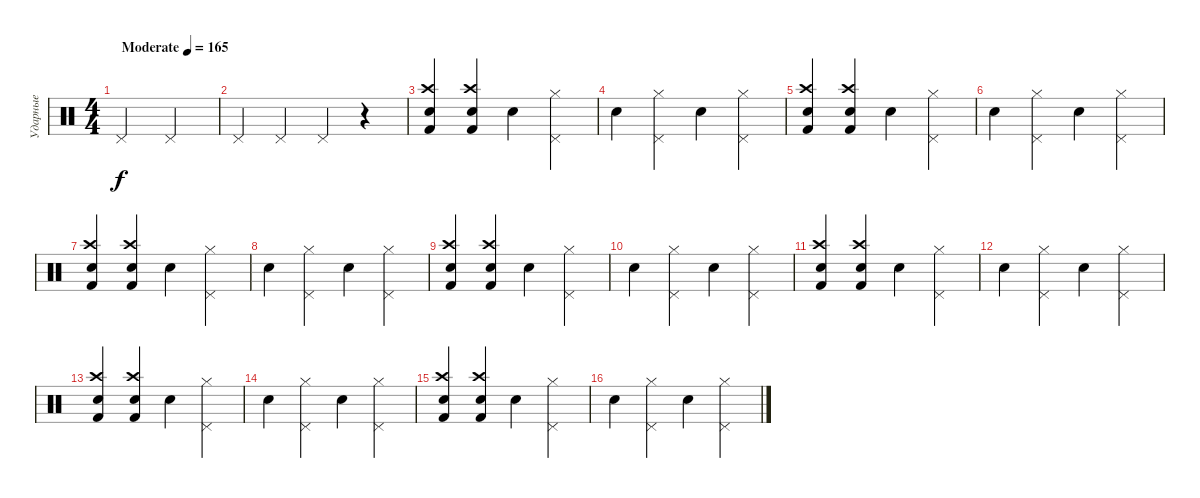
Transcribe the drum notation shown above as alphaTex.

\track ("Ударные" "Ударные") {instrument percussion}
\staff {score}
\articulation defaults
\ts (4 4)
\tempo (165 "Moderate")
\clef neutral
\ks c "Pedal Hi-Hat (hit)".2{dy f} "Pedal Hi-Hat (hit)".2
|
"Pedal Hi-Hat (hit)".4 "Pedal Hi-Hat (hit)".4 "Pedal Hi-Hat (hit)".4 r.4 |
("Kick (hit) 2" "Crash high (hit)" "Snare (hit) 2").4 ("Kick (hit) 2" "Crash high (hit)" "Snare (hit) 2").4 "Snare (hit) 2".4 ("Hi-Hat (closed)" "Pedal Hi-Hat (hit)").4 |
"Electric Snare (hit)".4 ("Hi-Hat (closed)" "Pedal Hi-Hat (hit)").4 "Electric Snare (hit)".4 ("Hi-Hat (closed)" "Pedal Hi-Hat (hit)").4 |
("Kick (hit) 2" "Crash high (hit)" "Snare (hit) 2").4 ("Kick (hit) 2" "Crash high (hit)" "Snare (hit) 2").4 "Snare (hit) 2".4 ("Hi-Hat (closed)" "Pedal Hi-Hat (hit)").4 |
"Electric Snare (hit)".4 ("Hi-Hat (closed)" "Pedal Hi-Hat (hit)").4 "Electric Snare (hit)".4 ("Hi-Hat (closed)" "Pedal Hi-Hat (hit)").4 |
("Kick (hit) 2" "Crash high (hit)" "Snare (hit) 2").4 ("Kick (hit) 2" "Crash high (hit)" "Snare (hit) 2").4 "Snare (hit) 2".4 ("Hi-Hat (closed)" "Pedal Hi-Hat (hit)").4 |
"Electric Snare (hit)".4 ("Hi-Hat (closed)" "Pedal Hi-Hat (hit)").4 "Electric Snare (hit)".4 ("Hi-Hat (closed)" "Pedal Hi-Hat (hit)").4 |
("Kick (hit) 2" "Crash high (hit)" "Snare (hit) 2").4 ("Kick (hit) 2" "Crash high (hit)" "Snare (hit) 2").4 "Snare (hit) 2".4 ("Hi-Hat (closed)" "Pedal Hi-Hat (hit)").4 |
"Electric Snare (hit)".4 ("Hi-Hat (closed)" "Pedal Hi-Hat (hit)").4 "Electric Snare (hit)".4 ("Hi-Hat (closed)" "Pedal Hi-Hat (hit)").4 |
("Kick (hit) 2" "Crash high (hit)" "Snare (hit) 2").4 ("Kick (hit) 2" "Crash high (hit)" "Snare (hit) 2").4 "Snare (hit) 2".4 ("Hi-Hat (closed)" "Pedal Hi-Hat (hit)").4 |
"Electric Snare (hit)".4 ("Hi-Hat (closed)" "Pedal Hi-Hat (hit)").4 "Electric Snare (hit)".4 ("Hi-Hat (closed)" "Pedal Hi-Hat (hit)").4 |
("Kick (hit) 2" "Crash high (hit)" "Snare (hit) 2").4 ("Kick (hit) 2" "Crash high (hit)" "Snare (hit) 2").4 "Snare (hit) 2".4 ("Hi-Hat (closed)" "Pedal Hi-Hat (hit)").4 |
"Electric Snare (hit)".4 ("Hi-Hat (closed)" "Pedal Hi-Hat (hit)").4 "Electric Snare (hit)".4 ("Hi-Hat (closed)" "Pedal Hi-Hat (hit)").4 |
("Kick (hit) 2" "Crash high (hit)" "Snare (hit) 2").4 ("Kick (hit) 2" "Crash high (hit)" "Snare (hit) 2").4 "Snare (hit) 2".4 ("Hi-Hat (closed)" "Pedal Hi-Hat (hit)").4 |
"Electric Snare (hit)".4 ("Hi-Hat (closed)" "Pedal Hi-Hat (hit)").4 "Electric Snare (hit)".4 ("Hi-Hat (closed)" "Pedal Hi-Hat (hit)").4
